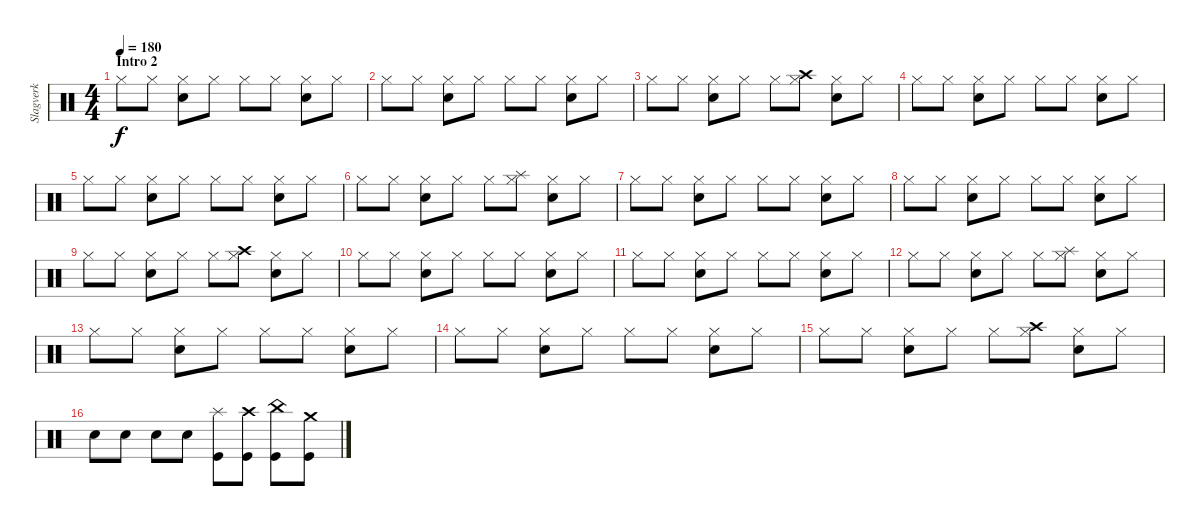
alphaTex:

\track ("Slagverk" "Slagverk") {instrument percussion}
\staff {score}
\articulation defaults
\ts (4 4)
\section ("" "Intro 2")
\tempo 180
\clef neutral
\ks c "Hi-Hat (closed)".8{dy f} "Hi-Hat (closed)".8
("Hi-Hat (closed)" "Electric Snare (hit)").8 "Hi-Hat (closed)".8 "Hi-Hat (closed)".8 "Hi-Hat (closed)".8 ("Hi-Hat (closed)" "Electric Snare (hit)").8 "Hi-Hat (closed)".8 |
"Hi-Hat (closed)".8 "Hi-Hat (closed)".8 ("Hi-Hat (closed)" "Electric Snare (hit)").8 "Hi-Hat (closed)".8 "Hi-Hat (closed)".8 "Hi-Hat (closed)".8 ("Hi-Hat (closed)" "Electric Snare (hit)").8 "Hi-Hat (closed)".8 |
"Hi-Hat (closed)".8 "Hi-Hat (closed)".8 ("Hi-Hat (closed)" "Electric Snare (hit)").8 "Hi-Hat (closed)".8 "Hi-Hat (closed)".8 ("Hi-Hat (closed)" "Crash high (hit)").8 ("Hi-Hat (closed)" "Electric Snare (hit)").8 "Hi-Hat (closed)".8 |
"Hi-Hat (closed)".8 "Hi-Hat (closed)".8 ("Hi-Hat (closed)" "Electric Snare (hit)").8 "Hi-Hat (closed)".8 "Hi-Hat (closed)".8 "Hi-Hat (closed)".8 ("Hi-Hat (closed)" "Electric Snare (hit)").8 "Hi-Hat (closed)".8 |
"Hi-Hat (closed)".8 "Hi-Hat (closed)".8 ("Hi-Hat (closed)" "Electric Snare (hit)").8 "Hi-Hat (closed)".8 "Hi-Hat (closed)".8 "Hi-Hat (closed)".8 ("Hi-Hat (closed)" "Electric Snare (hit)").8 "Hi-Hat (closed)".8 |
"Hi-Hat (closed)".8 "Hi-Hat (closed)".8 ("Hi-Hat (closed)" "Electric Snare (hit)").8 "Hi-Hat (closed)".8 "Hi-Hat (closed)".8 ("Hi-Hat (closed)" "Splash (hit)").8 ("Hi-Hat (closed)" "Electric Snare (hit)").8 "Hi-Hat (closed)".8 |
"Hi-Hat (closed)".8 "Hi-Hat (closed)".8 ("Hi-Hat (closed)" "Electric Snare (hit)").8 "Hi-Hat (closed)".8 "Hi-Hat (closed)".8 "Hi-Hat (closed)".8 ("Hi-Hat (closed)" "Electric Snare (hit)").8 "Hi-Hat (closed)".8 |
"Hi-Hat (closed)".8 "Hi-Hat (closed)".8 ("Hi-Hat (closed)" "Electric Snare (hit)").8 "Hi-Hat (closed)".8 "Hi-Hat (closed)".8 "Hi-Hat (closed)".8 ("Hi-Hat (closed)" "Electric Snare (hit)").8 "Hi-Hat (closed)".8 |
"Hi-Hat (closed)".8 "Hi-Hat (closed)".8 ("Hi-Hat (closed)" "Electric Snare (hit)").8 "Hi-Hat (closed)".8 "Hi-Hat (closed)".8 ("Hi-Hat (closed)" "Crash high (hit)").8 ("Hi-Hat (closed)" "Electric Snare (hit)").8 "Hi-Hat (closed)".8 |
"Hi-Hat (closed)".8 "Hi-Hat (closed)".8 ("Hi-Hat (closed)" "Electric Snare (hit)").8 "Hi-Hat (closed)".8 "Hi-Hat (closed)".8 "Hi-Hat (closed)".8 ("Hi-Hat (closed)" "Electric Snare (hit)").8 "Hi-Hat (closed)".8 |
"Hi-Hat (closed)".8 "Hi-Hat (closed)".8 ("Hi-Hat (closed)" "Electric Snare (hit)").8 "Hi-Hat (closed)".8 "Hi-Hat (closed)".8 "Hi-Hat (closed)".8 ("Hi-Hat (closed)" "Electric Snare (hit)").8 "Hi-Hat (closed)".8 |
"Hi-Hat (closed)".8 "Hi-Hat (closed)".8 ("Hi-Hat (closed)" "Electric Snare (hit)").8 "Hi-Hat (closed)".8 "Hi-Hat (closed)".8 ("Hi-Hat (closed)" "Splash (hit)").8 ("Hi-Hat (closed)" "Electric Snare (hit)").8 "Hi-Hat (closed)".8 |
"Hi-Hat (closed)".8 "Hi-Hat (closed)".8 ("Hi-Hat (closed)" "Electric Snare (hit)").8 "Hi-Hat (closed)".8 "Hi-Hat (closed)".8 "Hi-Hat (closed)".8 ("Hi-Hat (closed)" "Electric Snare (hit)").8 "Hi-Hat (closed)".8 |
"Hi-Hat (closed)".8 "Hi-Hat (closed)".8 ("Hi-Hat (closed)" "Electric Snare (hit)").8 "Hi-Hat (closed)".8 "Hi-Hat (closed)".8 "Hi-Hat (closed)".8 ("Hi-Hat (closed)" "Electric Snare (hit)").8 "Hi-Hat (closed)".8 |
"Hi-Hat (closed)".8 "Hi-Hat (closed)".8 ("Hi-Hat (closed)" "Electric Snare (hit)").8 "Hi-Hat (closed)".8 "Hi-Hat (closed)".8 ("Hi-Hat (closed)" "Crash high (hit)").8 ("Hi-Hat (closed)" "Electric Snare (hit)").8 "Hi-Hat (closed)".8 |
"Electric Snare (hit)".8 "Electric Snare (hit)".8 "Electric Snare (hit)".8 "Electric Snare (hit)".8 ("Kick (hit)" "Splash (hit)").8 ("Kick (hit)" "Crash high (hit)").8 ("Kick (hit)" "China (hit)").8 ("Kick (hit)" "Crash medium (hit)").8
